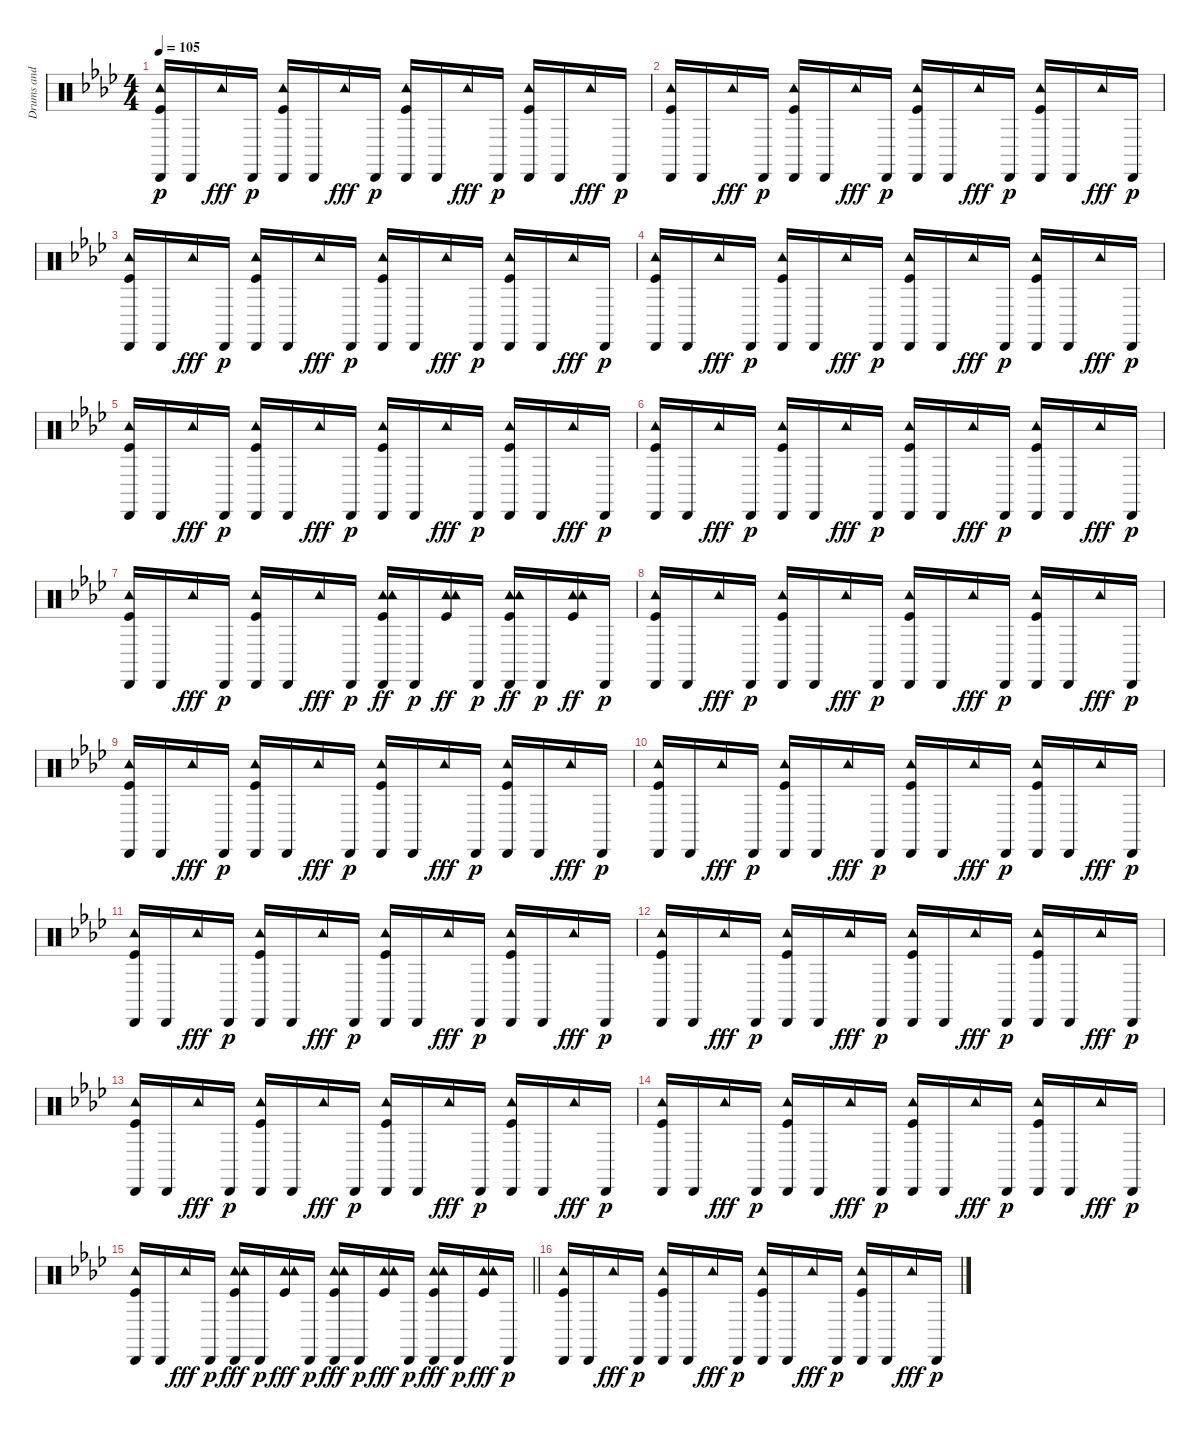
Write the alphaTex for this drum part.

\track ("Drums and percussion" "Drums and ") {instrument percussion}
\staff {score}
\articulation defaults
\ts (4 4)
\tempo 105
\clef neutral
\ks ab
("Cabasa (hit)" "Tambourine (hit)" "Kick (hit)").16{dy p} "Cabasa (hit)".16 "Tambourine (hit)".16{dy fff} "Cabasa (hit)".16{dy p} ("Cabasa (hit)" "Tambourine (hit)" "Kick (hit)").16 "Cabasa (hit)".16 "Tambourine (hit)".16{dy fff} "Cabasa (hit)".16{dy p} ("Cabasa (hit)" "Tambourine (hit)" "Kick (hit)").16 "Cabasa (hit)".16 "Tambourine (hit)".16{dy fff} "Cabasa (hit)".16{dy p} ("Cabasa (hit)" "Tambourine (hit)" "Kick (hit)").16 "Cabasa (hit)".16 "Tambourine (hit)".16{dy fff} "Cabasa (hit)".16{dy p} |
("Cabasa (hit)" "Tambourine (hit)" "Kick (hit)").16 "Cabasa (hit)".16 "Tambourine (hit)".16{dy fff} "Cabasa (hit)".16{dy p} ("Cabasa (hit)" "Tambourine (hit)" "Kick (hit)").16 "Cabasa (hit)".16 "Tambourine (hit)".16{dy fff} "Cabasa (hit)".16{dy p} ("Cabasa (hit)" "Tambourine (hit)" "Kick (hit)").16 "Cabasa (hit)".16 "Tambourine (hit)".16{dy fff} "Cabasa (hit)".16{dy p} ("Cabasa (hit)" "Tambourine (hit)" "Kick (hit)").16 "Cabasa (hit)".16 "Tambourine (hit)".16{dy fff} "Cabasa (hit)".16{dy p} |
("Cabasa (hit)" "Tambourine (hit)" "Kick (hit)").16 "Cabasa (hit)".16 "Tambourine (hit)".16{dy fff} "Cabasa (hit)".16{dy p} ("Cabasa (hit)" "Tambourine (hit)" "Kick (hit)").16 "Cabasa (hit)".16 "Tambourine (hit)".16{dy fff} "Cabasa (hit)".16{dy p} ("Cabasa (hit)" "Tambourine (hit)" "Kick (hit)").16 "Cabasa (hit)".16 "Tambourine (hit)".16{dy fff} "Cabasa (hit)".16{dy p} ("Cabasa (hit)" "Tambourine (hit)" "Kick (hit)").16 "Cabasa (hit)".16 "Tambourine (hit)".16{dy fff} "Cabasa (hit)".16{dy p} |
("Cabasa (hit)" "Tambourine (hit)" "Kick (hit)").16 "Cabasa (hit)".16 "Tambourine (hit)".16{dy fff} "Cabasa (hit)".16{dy p} ("Cabasa (hit)" "Tambourine (hit)" "Kick (hit)").16 "Cabasa (hit)".16 "Tambourine (hit)".16{dy fff} "Cabasa (hit)".16{dy p} ("Cabasa (hit)" "Tambourine (hit)" "Kick (hit)").16 "Cabasa (hit)".16 "Tambourine (hit)".16{dy fff} "Cabasa (hit)".16{dy p} ("Cabasa (hit)" "Tambourine (hit)" "Kick (hit)").16 "Cabasa (hit)".16 "Tambourine (hit)".16{dy fff} "Cabasa (hit)".16{dy p} |
("Cabasa (hit)" "Tambourine (hit)" "Kick (hit)").16 "Cabasa (hit)".16 "Tambourine (hit)".16{dy fff} "Cabasa (hit)".16{dy p} ("Cabasa (hit)" "Tambourine (hit)" "Kick (hit)").16 "Cabasa (hit)".16 "Tambourine (hit)".16{dy fff} "Cabasa (hit)".16{dy p} ("Cabasa (hit)" "Tambourine (hit)" "Kick (hit)").16 "Cabasa (hit)".16 "Tambourine (hit)".16{dy fff} "Cabasa (hit)".16{dy p} ("Cabasa (hit)" "Tambourine (hit)" "Kick (hit)").16 "Cabasa (hit)".16 "Tambourine (hit)".16{dy fff} "Cabasa (hit)".16{dy p} |
("Cabasa (hit)" "Tambourine (hit)" "Kick (hit)").16 "Cabasa (hit)".16 "Tambourine (hit)".16{dy fff} "Cabasa (hit)".16{dy p} ("Cabasa (hit)" "Tambourine (hit)" "Kick (hit)").16 "Cabasa (hit)".16 "Tambourine (hit)".16{dy fff} "Cabasa (hit)".16{dy p} ("Cabasa (hit)" "Tambourine (hit)" "Kick (hit)").16 "Cabasa (hit)".16 "Tambourine (hit)".16{dy fff} "Cabasa (hit)".16{dy p} ("Cabasa (hit)" "Tambourine (hit)" "Kick (hit)").16 "Cabasa (hit)".16 "Tambourine (hit)".16{dy fff} "Cabasa (hit)".16{dy p} |
("Cabasa (hit)" "Tambourine (hit)" "Kick (hit)").16 "Cabasa (hit)".16 "Tambourine (hit)".16{dy fff} "Cabasa (hit)".16{dy p} ("Cabasa (hit)" "Tambourine (hit)" "Kick (hit)").16 "Cabasa (hit)".16 "Tambourine (hit)".16{dy fff} "Cabasa (hit)".16{dy p} ("Cabasa (hit)" "Tambourine (hit)" "Tambourine (hit)" "Kick (hit)").16{dy ff} "Cabasa (hit)".16{dy p} ("Tambourine (hit)" "Tambourine (hit)" "Kick (hit)").16{dy ff} "Cabasa (hit)".16{dy p} ("Cabasa (hit)" "Tambourine (hit)" "Tambourine (hit)" "Kick (hit)").16{dy ff} "Cabasa (hit)".16{dy p} ("Tambourine (hit)" "Tambourine (hit)" "Kick (hit)").16{dy ff} "Cabasa (hit)".16{dy p} |
("Cabasa (hit)" "Tambourine (hit)" "Kick (hit)").16 "Cabasa (hit)".16 "Tambourine (hit)".16{dy fff} "Cabasa (hit)".16{dy p} ("Cabasa (hit)" "Tambourine (hit)" "Kick (hit)").16 "Cabasa (hit)".16 "Tambourine (hit)".16{dy fff} "Cabasa (hit)".16{dy p} ("Cabasa (hit)" "Tambourine (hit)" "Kick (hit)").16 "Cabasa (hit)".16 "Tambourine (hit)".16{dy fff} "Cabasa (hit)".16{dy p} ("Cabasa (hit)" "Tambourine (hit)" "Kick (hit)").16 "Cabasa (hit)".16 "Tambourine (hit)".16{dy fff} "Cabasa (hit)".16{dy p} |
("Cabasa (hit)" "Tambourine (hit)" "Kick (hit)").16 "Cabasa (hit)".16 "Tambourine (hit)".16{dy fff} "Cabasa (hit)".16{dy p} ("Cabasa (hit)" "Tambourine (hit)" "Kick (hit)").16 "Cabasa (hit)".16 "Tambourine (hit)".16{dy fff} "Cabasa (hit)".16{dy p} ("Cabasa (hit)" "Tambourine (hit)" "Kick (hit)").16 "Cabasa (hit)".16 "Tambourine (hit)".16{dy fff} "Cabasa (hit)".16{dy p} ("Cabasa (hit)" "Tambourine (hit)" "Kick (hit)").16 "Cabasa (hit)".16 "Tambourine (hit)".16{dy fff} "Cabasa (hit)".16{dy p} |
("Cabasa (hit)" "Tambourine (hit)" "Kick (hit)").16 "Cabasa (hit)".16 "Tambourine (hit)".16{dy fff} "Cabasa (hit)".16{dy p} ("Cabasa (hit)" "Tambourine (hit)" "Kick (hit)").16 "Cabasa (hit)".16 "Tambourine (hit)".16{dy fff} "Cabasa (hit)".16{dy p} ("Cabasa (hit)" "Tambourine (hit)" "Kick (hit)").16 "Cabasa (hit)".16 "Tambourine (hit)".16{dy fff} "Cabasa (hit)".16{dy p} ("Cabasa (hit)" "Tambourine (hit)" "Kick (hit)").16 "Cabasa (hit)".16 "Tambourine (hit)".16{dy fff} "Cabasa (hit)".16{dy p} |
("Cabasa (hit)" "Tambourine (hit)" "Kick (hit)").16 "Cabasa (hit)".16 "Tambourine (hit)".16{dy fff} "Cabasa (hit)".16{dy p} ("Cabasa (hit)" "Tambourine (hit)" "Kick (hit)").16 "Cabasa (hit)".16 "Tambourine (hit)".16{dy fff} "Cabasa (hit)".16{dy p} ("Cabasa (hit)" "Tambourine (hit)" "Kick (hit)").16 "Cabasa (hit)".16 "Tambourine (hit)".16{dy fff} "Cabasa (hit)".16{dy p} ("Cabasa (hit)" "Tambourine (hit)" "Kick (hit)").16 "Cabasa (hit)".16 "Tambourine (hit)".16{dy fff} "Cabasa (hit)".16{dy p} |
("Cabasa (hit)" "Tambourine (hit)" "Kick (hit)").16 "Cabasa (hit)".16 "Tambourine (hit)".16{dy fff} "Cabasa (hit)".16{dy p} ("Cabasa (hit)" "Tambourine (hit)" "Kick (hit)").16 "Cabasa (hit)".16 "Tambourine (hit)".16{dy fff} "Cabasa (hit)".16{dy p} ("Cabasa (hit)" "Tambourine (hit)" "Kick (hit)").16 "Cabasa (hit)".16 "Tambourine (hit)".16{dy fff} "Cabasa (hit)".16{dy p} ("Cabasa (hit)" "Tambourine (hit)" "Kick (hit)").16 "Cabasa (hit)".16 "Tambourine (hit)".16{dy fff} "Cabasa (hit)".16{dy p} |
("Cabasa (hit)" "Tambourine (hit)" "Kick (hit)").16 "Cabasa (hit)".16 "Tambourine (hit)".16{dy fff} "Cabasa (hit)".16{dy p} ("Cabasa (hit)" "Tambourine (hit)" "Kick (hit)").16 "Cabasa (hit)".16 "Tambourine (hit)".16{dy fff} "Cabasa (hit)".16{dy p} ("Cabasa (hit)" "Tambourine (hit)" "Kick (hit)").16 "Cabasa (hit)".16 "Tambourine (hit)".16{dy fff} "Cabasa (hit)".16{dy p} ("Cabasa (hit)" "Tambourine (hit)" "Kick (hit)").16 "Cabasa (hit)".16 "Tambourine (hit)".16{dy fff} "Cabasa (hit)".16{dy p} |
("Cabasa (hit)" "Tambourine (hit)" "Kick (hit)").16 "Cabasa (hit)".16 "Tambourine (hit)".16{dy fff} "Cabasa (hit)".16{dy p} ("Cabasa (hit)" "Tambourine (hit)" "Kick (hit)").16 "Cabasa (hit)".16 "Tambourine (hit)".16{dy fff} "Cabasa (hit)".16{dy p} ("Cabasa (hit)" "Tambourine (hit)" "Kick (hit)").16 "Cabasa (hit)".16 "Tambourine (hit)".16{dy fff} "Cabasa (hit)".16{dy p} ("Cabasa (hit)" "Tambourine (hit)" "Kick (hit)").16 "Cabasa (hit)".16 "Tambourine (hit)".16{dy fff} "Cabasa (hit)".16{dy p} |
\barLineRight lightlight
("Cabasa (hit)" "Tambourine (hit)" "Kick (hit)").16 "Cabasa (hit)".16 "Tambourine (hit)".16{dy fff} "Cabasa (hit)".16{dy p} ("Cabasa (hit)" "Tambourine (hit)" "Tambourine (hit)" "Kick (hit)").16{dy fff} "Cabasa (hit)".16{dy p} ("Tambourine (hit)" "Tambourine (hit)" "Kick (hit)").16{dy fff} "Cabasa (hit)".16{dy p} ("Cabasa (hit)" "Tambourine (hit)" "Tambourine (hit)" "Kick (hit)").16{dy fff} "Cabasa (hit)".16{dy p} ("Tambourine (hit)" "Tambourine (hit)" "Kick (hit)").16{dy fff} "Cabasa (hit)".16{dy p} ("Cabasa (hit)" "Tambourine (hit)" "Tambourine (hit)" "Kick (hit)").16{dy fff} "Cabasa (hit)".16{dy p} ("Tambourine (hit)" "Tambourine (hit)" "Kick (hit)").16{dy fff} "Cabasa (hit)".16{dy p} |
("Cabasa (hit)" "Tambourine (hit)" "Kick (hit)").16 "Cabasa (hit)".16 "Tambourine (hit)".16{dy fff} "Cabasa (hit)".16{dy p} ("Cabasa (hit)" "Tambourine (hit)" "Kick (hit)").16 "Cabasa (hit)".16 "Tambourine (hit)".16{dy fff} "Cabasa (hit)".16{dy p} ("Cabasa (hit)" "Tambourine (hit)" "Kick (hit)").16 "Cabasa (hit)".16 "Tambourine (hit)".16{dy fff} "Cabasa (hit)".16{dy p} ("Cabasa (hit)" "Tambourine (hit)" "Kick (hit)").16 "Cabasa (hit)".16 "Tambourine (hit)".16{dy fff} "Cabasa (hit)".16{dy p}
